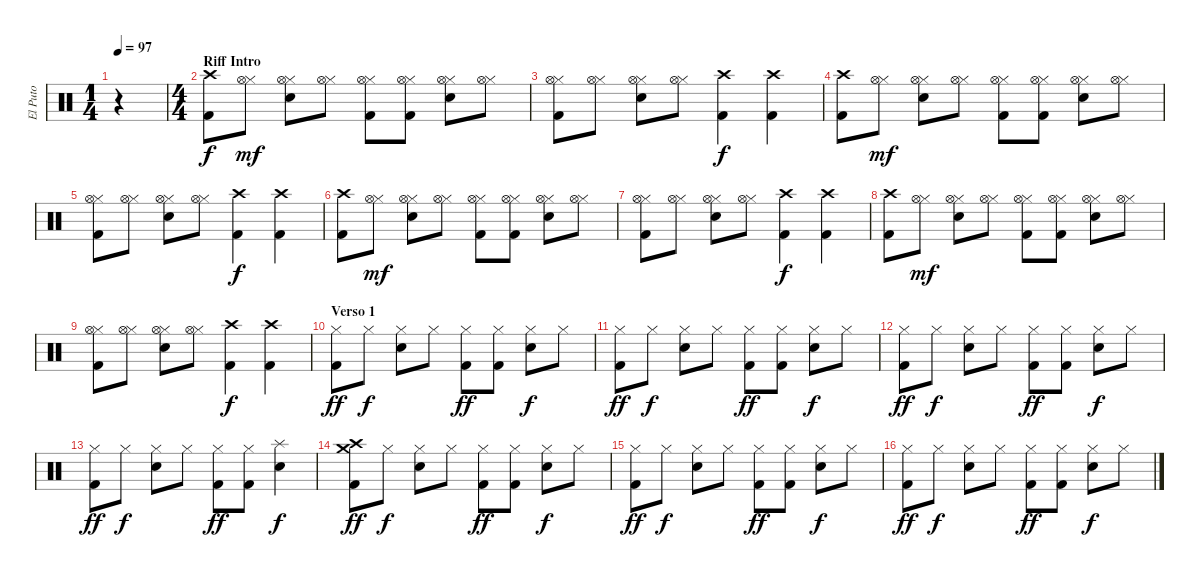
\track ("El Puto" "El Puto") {instrument percussion}
\staff {score}
\articulation defaults
\ts (1 4)
\tempo 97
\clef neutral
\ks c
r.4{dy f} |
\ts (4 4)
\section ("" "Riff Intro")
("Crash high (hit)" "Kick (hit) 2").8 ("Hi-Hat (closed)" "Hi-Hat (open)").8{dy mf} ("Hi-Hat (closed)" "Hi-Hat (open)" "Snare (hit) 2").8 ("Hi-Hat (closed)" "Hi-Hat (open)").8 ("Hi-Hat (closed)" "Hi-Hat (open)" "Kick (hit) 2").8 ("Hi-Hat (closed)" "Hi-Hat (open)" "Kick (hit) 2").8 ("Hi-Hat (closed)" "Hi-Hat (open)" "Snare (hit) 2").8 ("Hi-Hat (closed)" "Hi-Hat (open)").8 |
("Hi-Hat (closed)" "Hi-Hat (open)" "Kick (hit) 2").8 ("Hi-Hat (closed)" "Hi-Hat (open)").8 ("Hi-Hat (closed)" "Hi-Hat (open)" "Snare (hit) 2").8 ("Hi-Hat (closed)" "Hi-Hat (open)").8 ("Crash high (hit)" "Kick (hit) 2").4{dy f} ("Crash high (hit)" "Kick (hit) 2").4 |
("Crash high (hit)" "Kick (hit) 2").8 ("Hi-Hat (closed)" "Hi-Hat (open)").8{dy mf} ("Hi-Hat (closed)" "Hi-Hat (open)" "Snare (hit) 2").8 ("Hi-Hat (closed)" "Hi-Hat (open)").8 ("Hi-Hat (closed)" "Hi-Hat (open)" "Kick (hit) 2").8 ("Hi-Hat (closed)" "Hi-Hat (open)" "Kick (hit) 2").8 ("Hi-Hat (closed)" "Hi-Hat (open)" "Snare (hit) 2").8 ("Hi-Hat (closed)" "Hi-Hat (open)").8 |
("Hi-Hat (closed)" "Hi-Hat (open)" "Kick (hit) 2").8 ("Hi-Hat (closed)" "Hi-Hat (open)").8 ("Hi-Hat (closed)" "Hi-Hat (open)" "Snare (hit) 2").8 ("Hi-Hat (closed)" "Hi-Hat (open)").8 ("Crash high (hit)" "Kick (hit) 2").4{dy f} ("Crash high (hit)" "Kick (hit) 2").4 |
("Crash high (hit)" "Kick (hit) 2").8 ("Hi-Hat (closed)" "Hi-Hat (open)").8{dy mf} ("Hi-Hat (closed)" "Hi-Hat (open)" "Snare (hit) 2").8 ("Hi-Hat (closed)" "Hi-Hat (open)").8 ("Hi-Hat (closed)" "Hi-Hat (open)" "Kick (hit) 2").8 ("Hi-Hat (closed)" "Hi-Hat (open)" "Kick (hit) 2").8 ("Hi-Hat (closed)" "Hi-Hat (open)" "Snare (hit) 2").8 ("Hi-Hat (closed)" "Hi-Hat (open)").8 |
("Hi-Hat (closed)" "Hi-Hat (open)" "Kick (hit) 2").8 ("Hi-Hat (closed)" "Hi-Hat (open)").8 ("Hi-Hat (closed)" "Hi-Hat (open)" "Snare (hit) 2").8 ("Hi-Hat (closed)" "Hi-Hat (open)").8 ("Crash high (hit)" "Kick (hit) 2").4{dy f} ("Crash high (hit)" "Kick (hit) 2").4 |
("Crash high (hit)" "Kick (hit) 2").8 ("Hi-Hat (closed)" "Hi-Hat (open)").8{dy mf} ("Hi-Hat (closed)" "Hi-Hat (open)" "Snare (hit) 2").8 ("Hi-Hat (closed)" "Hi-Hat (open)").8 ("Hi-Hat (closed)" "Hi-Hat (open)" "Kick (hit) 2").8 ("Hi-Hat (closed)" "Hi-Hat (open)" "Kick (hit) 2").8 ("Hi-Hat (closed)" "Hi-Hat (open)" "Snare (hit) 2").8 ("Hi-Hat (closed)" "Hi-Hat (open)").8 |
("Hi-Hat (closed)" "Hi-Hat (open)" "Kick (hit) 2").8 ("Hi-Hat (closed)" "Hi-Hat (open)").8 ("Hi-Hat (closed)" "Hi-Hat (open)" "Snare (hit) 2").8 ("Hi-Hat (closed)" "Hi-Hat (open)").8 ("Crash high (hit)" "Kick (hit) 2").4{dy f} ("Crash high (hit)" "Kick (hit) 2").4 |
\section ("" "Verso 1")
("Hi-Hat (closed)" "Kick (hit) 2").8{dy ff} "Hi-Hat (closed)".8{dy f} ("Hi-Hat (closed)" "Snare (hit) 2").8 "Hi-Hat (closed)".8 ("Hi-Hat (closed)" "Kick (hit) 2").8{dy ff} ("Hi-Hat (closed)" "Kick (hit) 2").8 ("Hi-Hat (closed)" "Snare (hit) 2").8{dy f} "Hi-Hat (closed)".8 |
("Hi-Hat (closed)" "Kick (hit) 2").8{dy ff} "Hi-Hat (closed)".8{dy f} ("Hi-Hat (closed)" "Snare (hit) 2").8 "Hi-Hat (closed)".8 ("Hi-Hat (closed)" "Kick (hit) 2").8{dy ff} ("Hi-Hat (closed)" "Kick (hit) 2").8 ("Hi-Hat (closed)" "Snare (hit) 2").8{dy f} "Hi-Hat (closed)".8 |
("Hi-Hat (closed)" "Kick (hit) 2").8{dy ff} "Hi-Hat (closed)".8{dy f} ("Hi-Hat (closed)" "Snare (hit) 2").8 "Hi-Hat (closed)".8 ("Hi-Hat (closed)" "Kick (hit) 2").8{dy ff} ("Hi-Hat (closed)" "Kick (hit) 2").8 ("Hi-Hat (closed)" "Snare (hit) 2").8{dy f} "Hi-Hat (closed)".8 |
("Hi-Hat (closed)" "Kick (hit) 2").8{dy ff} "Hi-Hat (closed)".8{dy f} ("Hi-Hat (closed)" "Snare (hit) 2").8 "Hi-Hat (closed)".8 ("Hi-Hat (closed)" "Kick (hit) 2").8{dy ff} ("Hi-Hat (closed)" "Kick (hit) 2").8 ("Splash (hit)" "Snare (hit) 2").4{dy f} |
("Crash high (hit)" "Crash medium (hit)" "Kick (hit) 2").8{dy ff} "Hi-Hat (closed)".8{dy f} ("Hi-Hat (closed)" "Snare (hit) 2").8 "Hi-Hat (closed)".8 ("Hi-Hat (closed)" "Kick (hit) 2").8{dy ff} ("Hi-Hat (closed)" "Kick (hit) 2").8 ("Hi-Hat (closed)" "Snare (hit) 2").8{dy f} "Hi-Hat (closed)".8 |
("Hi-Hat (closed)" "Kick (hit) 2").8{dy ff} "Hi-Hat (closed)".8{dy f} ("Hi-Hat (closed)" "Snare (hit) 2").8 "Hi-Hat (closed)".8 ("Hi-Hat (closed)" "Kick (hit) 2").8{dy ff} ("Hi-Hat (closed)" "Kick (hit) 2").8 ("Hi-Hat (closed)" "Snare (hit) 2").8{dy f} "Hi-Hat (closed)".8 |
("Hi-Hat (closed)" "Kick (hit) 2").8{dy ff} "Hi-Hat (closed)".8{dy f} ("Hi-Hat (closed)" "Snare (hit) 2").8 "Hi-Hat (closed)".8 ("Hi-Hat (closed)" "Kick (hit) 2").8{dy ff} ("Hi-Hat (closed)" "Kick (hit) 2").8 ("Hi-Hat (closed)" "Snare (hit) 2").8{dy f} "Hi-Hat (closed)".8
